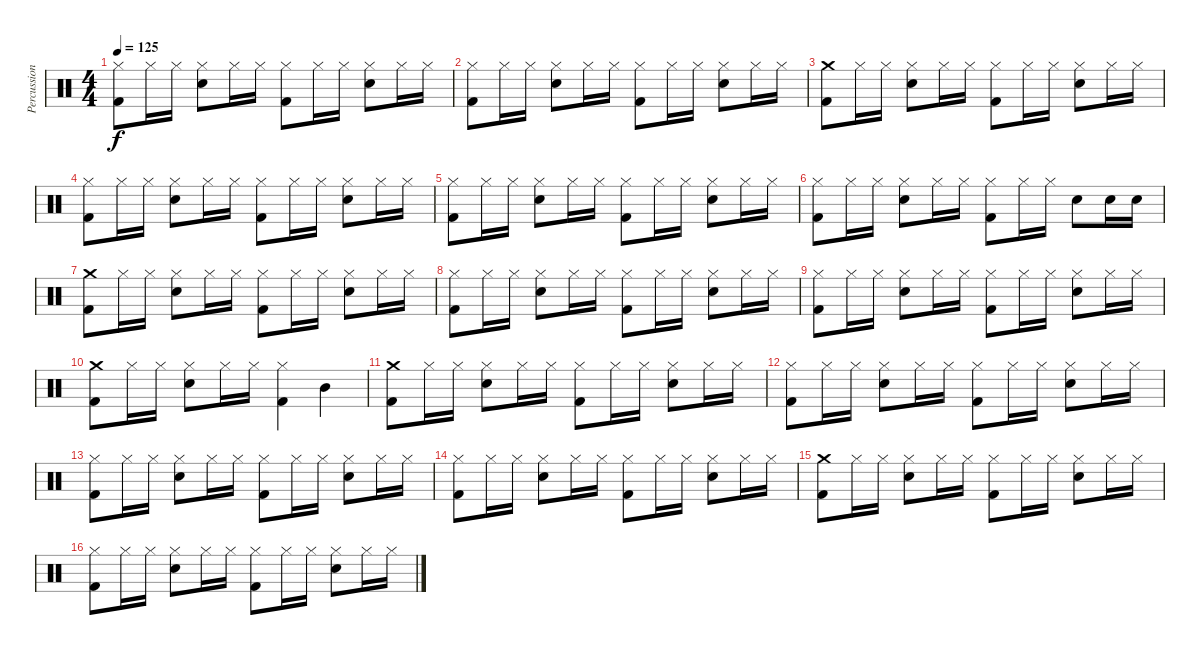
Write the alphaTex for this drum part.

\track ("Percussion" "Percussion") {instrument percussion}
\staff {score}
\articulation defaults
\ts (4 4)
\tempo 125
\clef neutral
\ks c
("Hi-Hat (closed)" "Kick (hit) 2").8{dy f} "Hi-Hat (closed)".16 "Hi-Hat (closed)".16 ("Hi-Hat (closed)" "Snare (hit) 2").8 "Hi-Hat (closed)".16 "Hi-Hat (closed)".16 ("Hi-Hat (closed)" "Kick (hit) 2").8 "Hi-Hat (closed)".16 "Hi-Hat (closed)".16 ("Hi-Hat (closed)" "Snare (hit) 2").8 "Hi-Hat (closed)".16 "Hi-Hat (closed)".16 |
("Hi-Hat (closed)" "Kick (hit) 2").8 "Hi-Hat (closed)".16 "Hi-Hat (closed)".16 ("Hi-Hat (closed)" "Snare (hit) 2").8 "Hi-Hat (closed)".16 "Hi-Hat (closed)".16 ("Hi-Hat (closed)" "Kick (hit) 2").8 "Hi-Hat (closed)".16 "Hi-Hat (closed)".16 ("Hi-Hat (closed)" "Snare (hit) 2").8 "Hi-Hat (closed)".16 "Hi-Hat (closed)".16 |
("Crash medium (hit)" "Kick (hit) 2").8 "Hi-Hat (closed)".16 "Hi-Hat (closed)".16 ("Hi-Hat (closed)" "Snare (hit) 2").8 "Hi-Hat (closed)".16 "Hi-Hat (closed)".16 ("Hi-Hat (closed)" "Kick (hit) 2").8 "Hi-Hat (closed)".16 "Hi-Hat (closed)".16 ("Hi-Hat (closed)" "Snare (hit) 2").8 "Hi-Hat (closed)".16 "Hi-Hat (closed)".16 |
("Hi-Hat (closed)" "Kick (hit) 2").8 "Hi-Hat (closed)".16 "Hi-Hat (closed)".16 ("Hi-Hat (closed)" "Snare (hit) 2").8 "Hi-Hat (closed)".16 "Hi-Hat (closed)".16 ("Hi-Hat (closed)" "Kick (hit) 2").8 "Hi-Hat (closed)".16 "Hi-Hat (closed)".16 ("Hi-Hat (closed)" "Snare (hit) 2").8 "Hi-Hat (closed)".16 "Hi-Hat (closed)".16 |
("Hi-Hat (closed)" "Kick (hit) 2").8 "Hi-Hat (closed)".16 "Hi-Hat (closed)".16 ("Hi-Hat (closed)" "Snare (hit) 2").8 "Hi-Hat (closed)".16 "Hi-Hat (closed)".16 ("Hi-Hat (closed)" "Kick (hit) 2").8 "Hi-Hat (closed)".16 "Hi-Hat (closed)".16 ("Hi-Hat (closed)" "Snare (hit) 2").8 "Hi-Hat (closed)".16 "Hi-Hat (closed)".16 |
("Hi-Hat (closed)" "Kick (hit) 2").8 "Hi-Hat (closed)".16 "Hi-Hat (closed)".16 ("Hi-Hat (closed)" "Snare (hit) 2").8 "Hi-Hat (closed)".16 "Hi-Hat (closed)".16 ("Hi-Hat (closed)" "Kick (hit) 2").8 "Hi-Hat (closed)".16 "Hi-Hat (closed)".16 "Snare (hit) 2".8 "Snare (hit) 2".16 "Snare (hit) 2".16 |
("Crash medium (hit)" "Kick (hit) 2").8 "Hi-Hat (closed)".16 "Hi-Hat (closed)".16 ("Hi-Hat (closed)" "Snare (hit) 2").8 "Hi-Hat (closed)".16 "Hi-Hat (closed)".16 ("Hi-Hat (closed)" "Kick (hit) 2").8 "Hi-Hat (closed)".16 "Hi-Hat (closed)".16 ("Hi-Hat (closed)" "Snare (hit) 2").8 "Hi-Hat (closed)".16 "Hi-Hat (closed)".16 |
("Hi-Hat (closed)" "Kick (hit) 2").8 "Hi-Hat (closed)".16 "Hi-Hat (closed)".16 ("Hi-Hat (closed)" "Snare (hit) 2").8 "Hi-Hat (closed)".16 "Hi-Hat (closed)".16 ("Hi-Hat (closed)" "Kick (hit) 2").8 "Hi-Hat (closed)".16 "Hi-Hat (closed)".16 ("Hi-Hat (closed)" "Snare (hit) 2").8 "Hi-Hat (closed)".16 "Hi-Hat (closed)".16 |
("Hi-Hat (closed)" "Kick (hit) 2").8 "Hi-Hat (closed)".16 "Hi-Hat (closed)".16 ("Hi-Hat (closed)" "Snare (hit) 2").8 "Hi-Hat (closed)".16 "Hi-Hat (closed)".16 ("Hi-Hat (closed)" "Kick (hit) 2").8 "Hi-Hat (closed)".16 "Hi-Hat (closed)".16 ("Hi-Hat (closed)" "Snare (hit) 2").8 "Hi-Hat (closed)".16 "Hi-Hat (closed)".16 |
("Crash medium (hit)" "Kick (hit) 2").8 "Hi-Hat (closed)".16 "Hi-Hat (closed)".16 ("Hi-Hat (closed)" "Snare (hit) 2").8 "Hi-Hat (closed)".16 "Hi-Hat (closed)".16 ("Hi-Hat (closed)" "Kick (hit) 2").4 "Mid Tom (hit)".4 |
("Crash medium (hit)" "Kick (hit) 2").8 "Hi-Hat (closed)".16 "Hi-Hat (closed)".16 ("Hi-Hat (closed)" "Snare (hit) 2").8 "Hi-Hat (closed)".16 "Hi-Hat (closed)".16 ("Hi-Hat (closed)" "Kick (hit) 2").8 "Hi-Hat (closed)".16 "Hi-Hat (closed)".16 ("Hi-Hat (closed)" "Snare (hit) 2").8 "Hi-Hat (closed)".16 "Hi-Hat (closed)".16 |
("Hi-Hat (closed)" "Kick (hit) 2").8 "Hi-Hat (closed)".16 "Hi-Hat (closed)".16 ("Hi-Hat (closed)" "Snare (hit) 2").8 "Hi-Hat (closed)".16 "Hi-Hat (closed)".16 ("Hi-Hat (closed)" "Kick (hit) 2").8 "Hi-Hat (closed)".16 "Hi-Hat (closed)".16 ("Hi-Hat (closed)" "Snare (hit) 2").8 "Hi-Hat (closed)".16 "Hi-Hat (closed)".16 |
("Hi-Hat (closed)" "Kick (hit) 2").8 "Hi-Hat (closed)".16 "Hi-Hat (closed)".16 ("Hi-Hat (closed)" "Snare (hit) 2").8 "Hi-Hat (closed)".16 "Hi-Hat (closed)".16 ("Hi-Hat (closed)" "Kick (hit) 2").8 "Hi-Hat (closed)".16 "Hi-Hat (closed)".16 ("Hi-Hat (closed)" "Snare (hit) 2").8 "Hi-Hat (closed)".16 "Hi-Hat (closed)".16 |
("Hi-Hat (closed)" "Kick (hit) 2").8 "Hi-Hat (closed)".16 "Hi-Hat (closed)".16 ("Hi-Hat (closed)" "Snare (hit) 2").8 "Hi-Hat (closed)".16 "Hi-Hat (closed)".16 ("Hi-Hat (closed)" "Kick (hit) 2").8 "Hi-Hat (closed)".16 "Hi-Hat (closed)".16 ("Hi-Hat (closed)" "Snare (hit) 2").8 "Hi-Hat (closed)".16 "Hi-Hat (closed)".16 |
("Crash medium (hit)" "Kick (hit) 2").8 "Hi-Hat (closed)".16 "Hi-Hat (closed)".16 ("Hi-Hat (closed)" "Snare (hit) 2").8 "Hi-Hat (closed)".16 "Hi-Hat (closed)".16 ("Hi-Hat (closed)" "Kick (hit) 2").8 "Hi-Hat (closed)".16 "Hi-Hat (closed)".16 ("Hi-Hat (closed)" "Snare (hit) 2").8 "Hi-Hat (closed)".16 "Hi-Hat (closed)".16 |
("Hi-Hat (closed)" "Kick (hit) 2").8 "Hi-Hat (closed)".16 "Hi-Hat (closed)".16 ("Hi-Hat (closed)" "Snare (hit) 2").8 "Hi-Hat (closed)".16 "Hi-Hat (closed)".16 ("Hi-Hat (closed)" "Kick (hit) 2").8 "Hi-Hat (closed)".16 "Hi-Hat (closed)".16 ("Hi-Hat (closed)" "Snare (hit) 2").8 "Hi-Hat (closed)".16 "Hi-Hat (closed)".16
